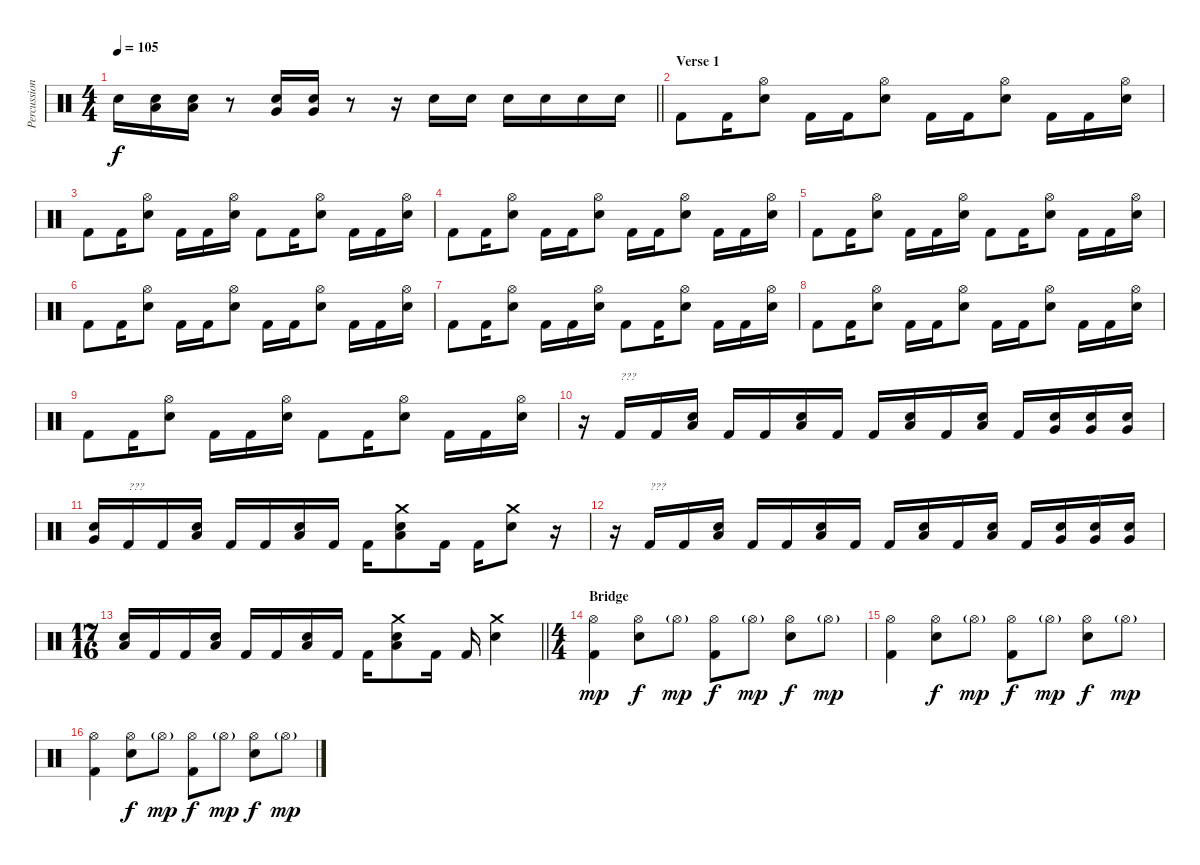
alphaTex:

\track ("Percussion" "Percussion") {instrument percussion}
\staff {score}
\articulation defaults
\ts (4 4)
\tempo 105
\clef neutral
\barLineRight lightlight
\ks c "Snare (hit)"{t}.16{dy f}
("Low Floor Tom (hit)" "Snare (hit) 2").16 ("Low Floor Tom (hit)" "Snare (hit) 2").16 r.8 ("Very Low Tom (hit)" "Snare (hit) 2").16 ("Very Low Tom (hit)" "Snare (hit) 2").16 r.8 r.16 "Snare (hit) 2".16 "Snare (hit) 2".16 "Snare (hit) 2".16 "Snare (hit) 2".16 "Snare (hit) 2".16 "Snare (hit) 2".16 |
\section ("" "Verse 1")
"Kick (hit) 2".8 "Kick (hit) 2".16 ("Hi-Hat (open)" "Snare (hit) 2").8 "Kick (hit) 2".16 "Kick (hit) 2".16 ("Hi-Hat (open)" "Snare (hit) 2").8 "Kick (hit) 2".16 "Kick (hit) 2".16 ("Hi-Hat (open)" "Snare (hit) 2").8 "Kick (hit) 2".16 "Kick (hit) 2".16 ("Hi-Hat (open)" "Snare (hit) 2").16 |
"Kick (hit) 2".8 "Kick (hit) 2".16 ("Hi-Hat (open)" "Snare (hit) 2").8 "Kick (hit) 2".16 "Kick (hit) 2".16 ("Hi-Hat (open)" "Snare (hit) 2").16 "Kick (hit) 2".8 "Kick (hit) 2".16 ("Hi-Hat (open)" "Snare (hit) 2").8 "Kick (hit) 2".16 "Kick (hit) 2".16 ("Hi-Hat (open)" "Snare (hit) 2").16 |
"Kick (hit) 2".8 "Kick (hit) 2".16 ("Hi-Hat (open)" "Snare (hit) 2").8 "Kick (hit) 2".16 "Kick (hit) 2".16 ("Hi-Hat (open)" "Snare (hit) 2").8 "Kick (hit) 2".16 "Kick (hit) 2".16 ("Hi-Hat (open)" "Snare (hit) 2").8 "Kick (hit) 2".16 "Kick (hit) 2".16 ("Hi-Hat (open)" "Snare (hit) 2").16 |
"Kick (hit) 2".8 "Kick (hit) 2".16 ("Hi-Hat (open)" "Snare (hit) 2").8 "Kick (hit) 2".16 "Kick (hit) 2".16 ("Hi-Hat (open)" "Snare (hit) 2").16 "Kick (hit) 2".8 "Kick (hit) 2".16 ("Hi-Hat (open)" "Snare (hit) 2").8 "Kick (hit) 2".16 "Kick (hit) 2".16 ("Hi-Hat (open)" "Snare (hit) 2").16 |
"Kick (hit) 2".8 "Kick (hit) 2".16 ("Hi-Hat (open)" "Snare (hit) 2").8 "Kick (hit) 2".16 "Kick (hit) 2".16 ("Hi-Hat (open)" "Snare (hit) 2").8 "Kick (hit) 2".16 "Kick (hit) 2".16 ("Hi-Hat (open)" "Snare (hit) 2").8 "Kick (hit) 2".16 "Kick (hit) 2".16 ("Hi-Hat (open)" "Snare (hit) 2").16 |
"Kick (hit) 2".8 "Kick (hit) 2".16 ("Hi-Hat (open)" "Snare (hit) 2").8 "Kick (hit) 2".16 "Kick (hit) 2".16 ("Hi-Hat (open)" "Snare (hit) 2").16 "Kick (hit) 2".8 "Kick (hit) 2".16 ("Hi-Hat (open)" "Snare (hit) 2").8 "Kick (hit) 2".16 "Kick (hit) 2".16 ("Hi-Hat (open)" "Snare (hit) 2").16 |
"Kick (hit) 2".8 "Kick (hit) 2".16 ("Hi-Hat (open)" "Snare (hit) 2").8 "Kick (hit) 2".16 "Kick (hit) 2".16 ("Hi-Hat (open)" "Snare (hit) 2").8 "Kick (hit) 2".16 "Kick (hit) 2".16 ("Hi-Hat (open)" "Snare (hit) 2").8 "Kick (hit) 2".16 "Kick (hit) 2".16 ("Hi-Hat (open)" "Snare (hit) 2").16 |
"Kick (hit) 2".8 "Kick (hit) 2".16 ("Hi-Hat (open)" "Snare (hit) 2").8 "Kick (hit) 2".16 "Kick (hit) 2".16 ("Hi-Hat (open)" "Snare (hit) 2").16 "Kick (hit) 2".8 "Kick (hit) 2".16 ("Hi-Hat (open)" "Snare (hit) 2").8 "Kick (hit) 2".16 "Kick (hit) 2".16 ("Hi-Hat (open)" "Snare (hit) 2").16 |
r.16 "Kick (hit) 2".16{txt "???"} "Kick (hit) 2".16 ("Low Tom (hit)" "Snare (hit) 2").16 "Kick (hit) 2".16 "Kick (hit) 2".16 ("Low Tom (hit)" "Snare (hit) 2").16 "Kick (hit) 2".16 "Kick (hit) 2".16 ("Low Tom (hit)" "Snare (hit) 2").16 "Kick (hit) 2".16 ("Low Tom (hit)" "Snare (hit) 2").16 "Kick (hit) 2".16 ("Very Low Tom (hit)" "Snare (hit) 2").16 ("Very Low Tom (hit)" "Snare (hit) 2").16 ("Very Low Tom (hit)" "Snare (hit) 2").16 |
("Very Low Tom (hit)" "Snare (hit) 2").16 "Kick (hit) 2".16{txt "???"} "Kick (hit) 2".16 ("Low Tom (hit)" "Snare (hit) 2").16 "Kick (hit) 2".16 "Kick (hit) 2".16 ("Low Tom (hit)" "Snare (hit) 2").16 "Kick (hit) 2".16 "Kick (hit) 2".16 ("Crash medium (hit)" "Low Tom (hit)" "Snare (hit) 2").8 "Kick (hit) 2".16 "Kick (hit) 2".16 ("Crash medium (hit)" "Snare (hit) 2").8 r.16 |
r.16 "Kick (hit) 2".16{txt "???"} "Kick (hit) 2".16 ("Low Tom (hit)" "Snare (hit) 2").16 "Kick (hit) 2".16 "Kick (hit) 2".16 ("Low Tom (hit)" "Snare (hit) 2").16 "Kick (hit) 2".16 "Kick (hit) 2".16 ("Low Tom (hit)" "Snare (hit) 2").16 "Kick (hit) 2".16 ("Low Tom (hit)" "Snare (hit) 2").16 "Kick (hit) 2".16 ("Very Low Tom (hit)" "Snare (hit) 2").16 ("Very Low Tom (hit)" "Snare (hit) 2").16 ("Very Low Tom (hit)" "Snare (hit) 2").16 |
\ts (17 16)
\barLineRight lightlight
("Low Tom (hit)" "Snare (hit) 2").16 "Kick (hit) 2".16 "Kick (hit) 2".16 ("Low Tom (hit)" "Snare (hit) 2").16 "Kick (hit) 2".16 "Kick (hit) 2".16 ("Low Tom (hit)" "Snare (hit) 2").16 "Kick (hit) 2".16 "Kick (hit) 2".16 ("Crash medium (hit)" "Low Tom (hit)" "Snare (hit) 2").8 "Kick (hit) 2".16 "Kick (hit) 2".16 ("Crash medium (hit)" "Snare (hit) 2").4 |
\ts (4 4)
\section ("" "Bridge")
("Hi-Hat (open)" "Kick (hit) 2").4{dy mp} ("Hi-Hat (open)" "Snare (hit) 2").8{dy f} "Hi-Hat (open)"{g}.8{dy mp} ("Hi-Hat (open)" "Kick (hit) 2").8{dy f} "Hi-Hat (open)"{g}.8{dy mp} ("Hi-Hat (open)" "Snare (hit) 2").8{dy f} "Hi-Hat (open)"{g}.8{dy mp} |
("Hi-Hat (open)" "Kick (hit) 2").4 ("Hi-Hat (open)" "Snare (hit) 2").8{dy f} "Hi-Hat (open)"{g}.8{dy mp} ("Hi-Hat (open)" "Kick (hit) 2").8{dy f} "Hi-Hat (open)"{g}.8{dy mp} ("Hi-Hat (open)" "Snare (hit) 2").8{dy f} "Hi-Hat (open)"{g}.8{dy mp} |
("Hi-Hat (open)" "Kick (hit) 2").4 ("Hi-Hat (open)" "Snare (hit) 2").8{dy f} "Hi-Hat (open)"{g}.8{dy mp} ("Hi-Hat (open)" "Kick (hit) 2").8{dy f} "Hi-Hat (open)"{g}.8{dy mp} ("Hi-Hat (open)" "Snare (hit) 2").8{dy f} "Hi-Hat (open)"{g}.8{dy mp}
